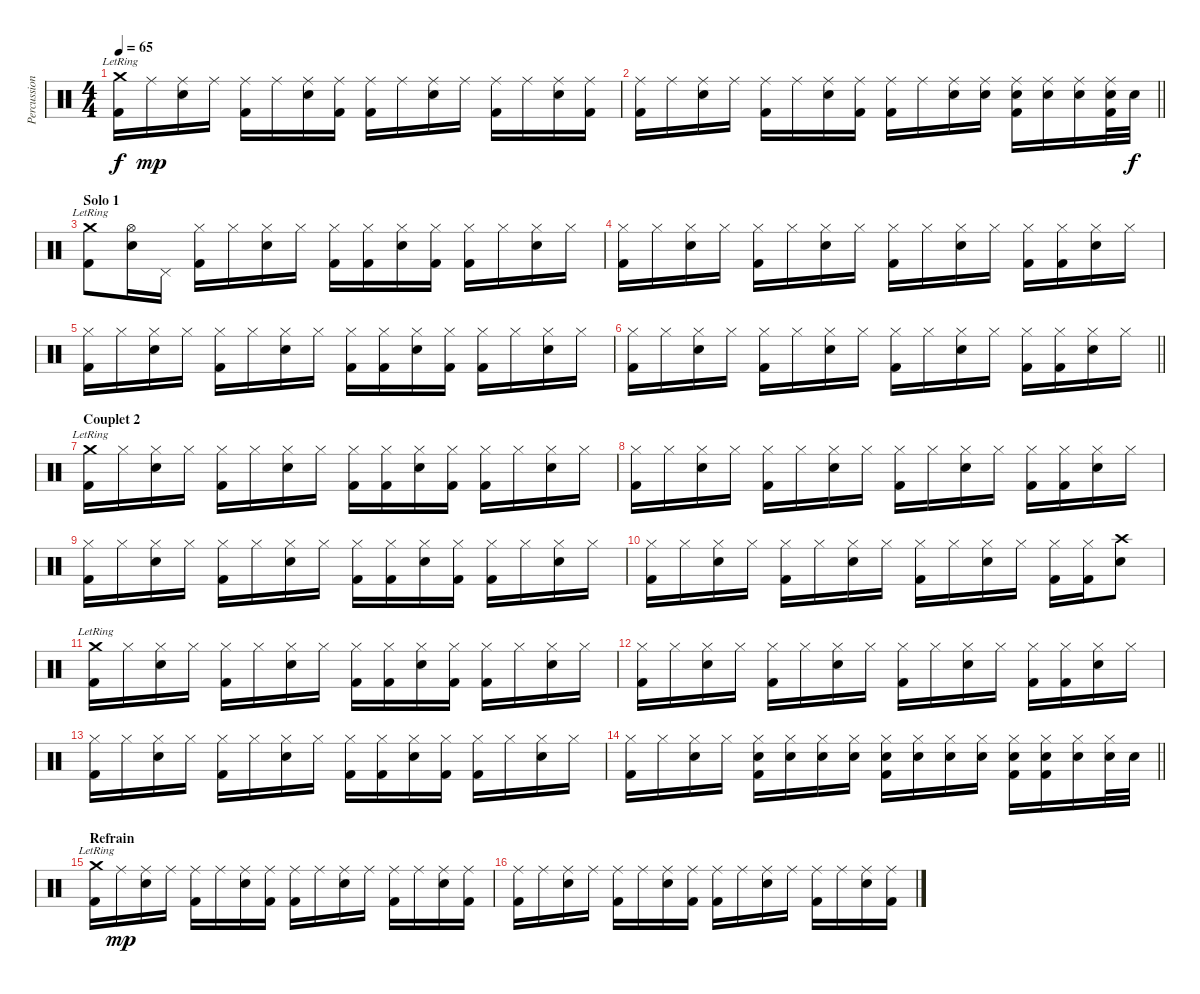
\track ("Percussions" "Percussion") {instrument percussion}
\staff {score}
\articulation defaults
\ts (4 4)
\tempo 65
\clef neutral
\ks c
("Crash medium (hit)"{lr} "Kick (hit) 2").16{dy f} "Ride (middle)".16{dy mp} ("Ride (middle)" "Snare (hit) 2").16 "Ride (middle)".16 ("Ride (middle)" "Kick (hit) 2").16 "Ride (middle)".16 ("Ride (middle)" "Snare (hit) 2").16 ("Ride (middle)" "Kick (hit) 2").16 ("Ride (middle)" "Kick (hit) 2").16 "Ride (middle)".16 ("Ride (middle)" "Snare (hit) 2").16 "Ride (middle)".16 ("Ride (middle)" "Kick (hit) 2").16 "Ride (middle)".16 ("Ride (middle)" "Snare (hit) 2").16 ("Ride (middle)" "Kick (hit) 2").16 |
\barLineRight lightlight
("Ride (middle)" "Kick (hit) 2").16 "Ride (middle)".16 ("Ride (middle)" "Snare (hit) 2").16 "Ride (middle)".16 ("Ride (middle)" "Kick (hit) 2").16 "Ride (middle)".16 ("Ride (middle)" "Snare (hit) 2").16 ("Ride (middle)" "Kick (hit) 2").16 ("Ride (middle)" "Kick (hit) 2").16 "Ride (middle)".16 ("Ride (middle)" "Snare (hit) 2").16 ("Ride (middle)" "Snare (hit) 2").16 ("Ride (middle)" "Snare (hit) 2" "Kick (hit) 2").16 ("Ride (middle)" "Snare (hit) 2").16 ("Ride (middle)" "Snare (hit) 2").16 ("Ride (middle)" "Snare (hit) 2" "Kick (hit) 2").32 "Snare (hit) 2".32{dy f} |
\section ("" "Solo 1")
("Crash medium (hit)"{lr} "Kick (hit) 2").8 ("Hi-Hat (open)" "Snare (hit) 2").16 "Pedal Hi-Hat (hit)".16 ("Hi-Hat (closed)" "Kick (hit) 2").16 "Hi-Hat (closed)".16 ("Hi-Hat (closed)" "Snare (hit) 2").16 "Hi-Hat (closed)".16 ("Hi-Hat (closed)" "Kick (hit) 2").16 ("Hi-Hat (closed)" "Kick (hit) 2").16 ("Hi-Hat (closed)" "Snare (hit) 2").16 ("Hi-Hat (closed)" "Kick (hit) 2").16 ("Hi-Hat (closed)" "Kick (hit) 2").16 "Hi-Hat (closed)".16 ("Hi-Hat (closed)" "Snare (hit) 2").16 "Hi-Hat (closed)".16 |
("Hi-Hat (closed)" "Kick (hit) 2").16 "Hi-Hat (closed)".16 ("Hi-Hat (closed)" "Snare (hit) 2").16 "Hi-Hat (closed)".16 ("Hi-Hat (closed)" "Kick (hit) 2").16 "Hi-Hat (closed)".16 ("Hi-Hat (closed)" "Snare (hit) 2").16 "Hi-Hat (closed)".16 ("Hi-Hat (closed)" "Kick (hit) 2").16 "Hi-Hat (closed)".16 ("Hi-Hat (closed)" "Snare (hit) 2").16 "Hi-Hat (closed)".16 ("Hi-Hat (closed)" "Kick (hit) 2").16 ("Hi-Hat (closed)" "Kick (hit) 2").16 ("Hi-Hat (closed)" "Snare (hit) 2").16 "Hi-Hat (closed)".16 |
("Hi-Hat (closed)" "Kick (hit) 2").16 "Hi-Hat (closed)".16 ("Hi-Hat (closed)" "Snare (hit) 2").16 "Hi-Hat (closed)".16 ("Hi-Hat (closed)" "Kick (hit) 2").16 "Hi-Hat (closed)".16 ("Hi-Hat (closed)" "Snare (hit) 2").16 "Hi-Hat (closed)".16 ("Hi-Hat (closed)" "Kick (hit) 2").16 ("Hi-Hat (closed)" "Kick (hit) 2").16 ("Hi-Hat (closed)" "Snare (hit) 2").16 ("Hi-Hat (closed)" "Kick (hit) 2").16 ("Hi-Hat (closed)" "Kick (hit) 2").16 "Hi-Hat (closed)".16 ("Hi-Hat (closed)" "Snare (hit) 2").16 "Hi-Hat (closed)".16 |
\barLineRight lightlight
("Hi-Hat (closed)" "Kick (hit) 2").16 "Hi-Hat (closed)".16 ("Hi-Hat (closed)" "Snare (hit) 2").16 "Hi-Hat (closed)".16 ("Hi-Hat (closed)" "Kick (hit) 2").16 "Hi-Hat (closed)".16 ("Hi-Hat (closed)" "Snare (hit) 2").16 "Hi-Hat (closed)".16 ("Hi-Hat (closed)" "Kick (hit) 2").16 "Hi-Hat (closed)".16 ("Hi-Hat (closed)" "Snare (hit) 2").16 "Hi-Hat (closed)".16 ("Hi-Hat (closed)" "Kick (hit) 2").16 ("Hi-Hat (closed)" "Kick (hit) 2").16 ("Hi-Hat (closed)" "Snare (hit) 2").16 "Hi-Hat (closed)".16 |
\section ("" "Couplet 2")
("Crash medium (hit)"{lr} "Kick (hit) 2").16 "Hi-Hat (closed)".16 ("Hi-Hat (closed)" "Snare (hit) 2").16 "Hi-Hat (closed)".16 ("Hi-Hat (closed)" "Kick (hit) 2").16 "Hi-Hat (closed)".16 ("Hi-Hat (closed)" "Snare (hit) 2").16 "Hi-Hat (closed)".16 ("Hi-Hat (closed)" "Kick (hit) 2").16 ("Hi-Hat (closed)" "Kick (hit) 2").16 ("Hi-Hat (closed)" "Snare (hit) 2").16 ("Hi-Hat (closed)" "Kick (hit) 2").16 ("Hi-Hat (closed)" "Kick (hit) 2").16 "Hi-Hat (closed)".16 ("Hi-Hat (closed)" "Snare (hit) 2").16 "Hi-Hat (closed)".16 |
("Hi-Hat (closed)" "Kick (hit) 2").16 "Hi-Hat (closed)".16 ("Hi-Hat (closed)" "Snare (hit) 2").16 "Hi-Hat (closed)".16 ("Hi-Hat (closed)" "Kick (hit) 2").16 "Hi-Hat (closed)".16 ("Hi-Hat (closed)" "Snare (hit) 2").16 "Hi-Hat (closed)".16 ("Hi-Hat (closed)" "Kick (hit) 2").16 "Hi-Hat (closed)".16 ("Hi-Hat (closed)" "Snare (hit) 2").16 "Hi-Hat (closed)".16 ("Hi-Hat (closed)" "Kick (hit) 2").16 ("Hi-Hat (closed)" "Kick (hit) 2").16 ("Hi-Hat (closed)" "Snare (hit) 2").16 "Hi-Hat (closed)".16 |
("Hi-Hat (closed)" "Kick (hit) 2").16 "Hi-Hat (closed)".16 ("Hi-Hat (closed)" "Snare (hit) 2").16 "Hi-Hat (closed)".16 ("Hi-Hat (closed)" "Kick (hit) 2").16 "Hi-Hat (closed)".16 ("Hi-Hat (closed)" "Snare (hit) 2").16 "Hi-Hat (closed)".16 ("Hi-Hat (closed)" "Kick (hit) 2").16 ("Hi-Hat (closed)" "Kick (hit) 2").16 ("Hi-Hat (closed)" "Snare (hit) 2").16 ("Hi-Hat (closed)" "Kick (hit) 2").16 ("Hi-Hat (closed)" "Kick (hit) 2").16 "Hi-Hat (closed)".16 ("Hi-Hat (closed)" "Snare (hit) 2").16 "Hi-Hat (closed)".16 |
("Hi-Hat (closed)" "Kick (hit) 2").16 "Hi-Hat (closed)".16 ("Hi-Hat (closed)" "Snare (hit) 2").16 "Hi-Hat (closed)".16 ("Hi-Hat (closed)" "Kick (hit) 2").16 "Hi-Hat (closed)".16 ("Hi-Hat (closed)" "Snare (hit) 2").16 "Hi-Hat (closed)".16 ("Hi-Hat (closed)" "Kick (hit) 2").16 "Hi-Hat (closed)".16 ("Hi-Hat (closed)" "Snare (hit) 2").16 "Hi-Hat (closed)".16 ("Hi-Hat (closed)" "Kick (hit) 2").16 ("Hi-Hat (closed)" "Kick (hit) 2").16 ("Crash high (hit)" "Snare (hit) 2").8 |
("Crash medium (hit)"{lr} "Kick (hit) 2").16 "Hi-Hat (closed)".16 ("Hi-Hat (closed)" "Snare (hit) 2").16 "Hi-Hat (closed)".16 ("Hi-Hat (closed)" "Kick (hit) 2").16 "Hi-Hat (closed)".16 ("Hi-Hat (closed)" "Snare (hit) 2").16 "Hi-Hat (closed)".16 ("Hi-Hat (closed)" "Kick (hit) 2").16 ("Hi-Hat (closed)" "Kick (hit) 2").16 ("Hi-Hat (closed)" "Snare (hit) 2").16 ("Hi-Hat (closed)" "Kick (hit) 2").16 ("Hi-Hat (closed)" "Kick (hit) 2").16 "Hi-Hat (closed)".16 ("Hi-Hat (closed)" "Snare (hit) 2").16 "Hi-Hat (closed)".16 |
("Hi-Hat (closed)" "Kick (hit) 2").16 "Hi-Hat (closed)".16 ("Hi-Hat (closed)" "Snare (hit) 2").16 "Hi-Hat (closed)".16 ("Hi-Hat (closed)" "Kick (hit) 2").16 "Hi-Hat (closed)".16 ("Hi-Hat (closed)" "Snare (hit) 2").16 "Hi-Hat (closed)".16 ("Hi-Hat (closed)" "Kick (hit) 2").16 "Hi-Hat (closed)".16 ("Hi-Hat (closed)" "Snare (hit) 2").16 "Hi-Hat (closed)".16 ("Hi-Hat (closed)" "Kick (hit) 2").16 ("Hi-Hat (closed)" "Kick (hit) 2").16 ("Hi-Hat (closed)" "Snare (hit) 2").16 "Hi-Hat (closed)".16 |
("Hi-Hat (closed)" "Kick (hit) 2").16 "Hi-Hat (closed)".16 ("Hi-Hat (closed)" "Snare (hit) 2").16 "Hi-Hat (closed)".16 ("Hi-Hat (closed)" "Kick (hit) 2").16 "Hi-Hat (closed)".16 ("Hi-Hat (closed)" "Snare (hit) 2").16 "Hi-Hat (closed)".16 ("Hi-Hat (closed)" "Kick (hit) 2").16 ("Hi-Hat (closed)" "Kick (hit) 2").16 ("Hi-Hat (closed)" "Snare (hit) 2").16 ("Hi-Hat (closed)" "Kick (hit) 2").16 ("Hi-Hat (closed)" "Kick (hit) 2").16 "Hi-Hat (closed)".16 ("Hi-Hat (closed)" "Snare (hit) 2").16 "Hi-Hat (closed)".16 |
\barLineRight lightlight
("Hi-Hat (closed)" "Kick (hit) 2").16 "Hi-Hat (closed)".16 ("Hi-Hat (closed)" "Snare (hit) 2").16 "Hi-Hat (closed)".16 ("Hi-Hat (closed)" "Snare (hit) 2" "Kick (hit) 2").16 ("Hi-Hat (closed)" "Snare (hit) 2").16 ("Hi-Hat (closed)" "Snare (hit) 2").16 ("Hi-Hat (closed)" "Snare (hit) 2").16 ("Hi-Hat (closed)" "Snare (hit) 2" "Kick (hit) 2").16 ("Hi-Hat (closed)" "Snare (hit) 2").16 ("Hi-Hat (closed)" "Snare (hit) 2").16 ("Hi-Hat (closed)" "Snare (hit) 2").16 ("Hi-Hat (closed)" "Snare (hit) 2" "Kick (hit) 2").16 ("Hi-Hat (closed)" "Snare (hit) 2" "Kick (hit) 2").16 ("Hi-Hat (closed)" "Snare (hit) 2").16 ("Hi-Hat (closed)" "Snare (hit) 2").32 "Snare (hit) 2".32 |
\section ("" "Refrain")
("Crash medium (hit)"{lr} "Kick (hit) 2").16 "Ride (middle)".16{dy mp} ("Ride (middle)" "Snare (hit) 2").16 "Ride (middle)".16 ("Ride (middle)" "Kick (hit) 2").16 "Ride (middle)".16 ("Ride (middle)" "Snare (hit) 2").16 ("Ride (middle)" "Kick (hit) 2").16 ("Ride (middle)" "Kick (hit) 2").16 "Ride (middle)".16 ("Ride (middle)" "Snare (hit) 2").16 "Ride (middle)".16 ("Ride (middle)" "Kick (hit) 2").16 "Ride (middle)".16 ("Ride (middle)" "Snare (hit) 2").16 ("Ride (middle)" "Kick (hit) 2").16 |
("Ride (middle)" "Kick (hit) 2").16 "Ride (middle)".16 ("Ride (middle)" "Snare (hit) 2").16 "Ride (middle)".16 ("Ride (middle)" "Kick (hit) 2").16 "Ride (middle)".16 ("Ride (middle)" "Snare (hit) 2").16 ("Ride (middle)" "Kick (hit) 2").16 ("Ride (middle)" "Kick (hit) 2").16 "Ride (middle)".16 ("Ride (middle)" "Snare (hit) 2").16 "Ride (middle)".16 ("Ride (middle)" "Kick (hit) 2").16 "Ride (middle)".16 ("Ride (middle)" "Snare (hit) 2").16 ("Ride (middle)" "Kick (hit) 2").16
